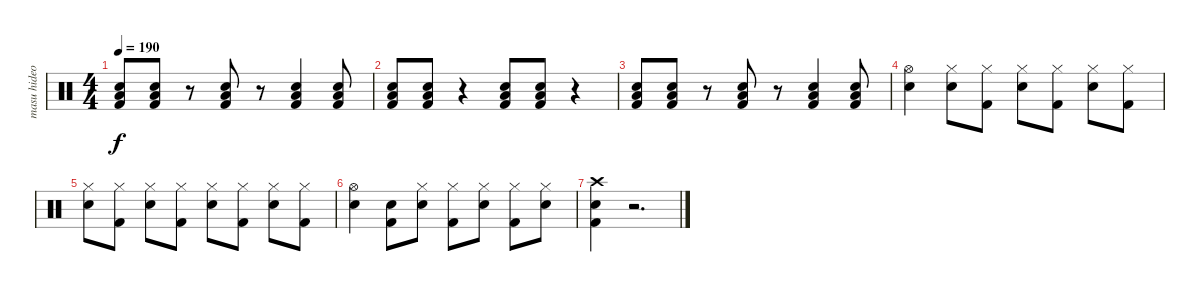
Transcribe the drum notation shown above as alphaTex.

\track ("masu hideo" "masu hideo") {instrument percussion}
\staff {score}
\articulation defaults
\ts (4 4)
\tempo 190
\clef neutral
\ks c
("Snare (hit) 2" "Low Floor Tom (hit)" "Kick (hit) 2").8{dy f} ("Snare (hit) 2" "Low Floor Tom (hit)" "Kick (hit) 2").8 r.8 ("Snare (hit) 2" "Low Floor Tom (hit)" "Kick (hit) 2").8 r.8 ("Snare (hit) 2" "Low Floor Tom (hit)" "Kick (hit) 2").4 ("Snare (hit) 2" "Low Floor Tom (hit)" "Kick (hit) 2").8 |
("Snare (hit) 2" "Low Floor Tom (hit)" "Kick (hit) 2").8 ("Snare (hit) 2" "Low Floor Tom (hit)" "Kick (hit) 2").8 r.4 ("Snare (hit) 2" "Low Floor Tom (hit)" "Kick (hit) 2").8 ("Snare (hit) 2" "Low Floor Tom (hit)" "Kick (hit) 2").8 r.4 |
("Snare (hit) 2" "Low Floor Tom (hit)" "Kick (hit) 2").8 ("Snare (hit) 2" "Low Floor Tom (hit)" "Kick (hit) 2").8 r.8 ("Snare (hit) 2" "Low Floor Tom (hit)" "Kick (hit) 2").8 r.8 ("Snare (hit) 2" "Low Floor Tom (hit)" "Kick (hit) 2").4 ("Snare (hit) 2" "Low Floor Tom (hit)" "Kick (hit) 2").8 |
("Hi-Hat (open)" "Snare (hit) 2").4 ("Hi-Hat (closed)" "Snare (hit) 2").8 ("Hi-Hat (closed)" "Kick (hit) 2").8 ("Hi-Hat (closed)" "Snare (hit) 2").8 ("Hi-Hat (closed)" "Kick (hit) 2").8 ("Hi-Hat (closed)" "Snare (hit) 2").8 ("Hi-Hat (closed)" "Kick (hit) 2").8 |
("Hi-Hat (closed)" "Snare (hit) 2").8 ("Hi-Hat (closed)" "Kick (hit) 2").8 ("Hi-Hat (closed)" "Snare (hit) 2").8 ("Hi-Hat (closed)" "Kick (hit) 2").8 ("Hi-Hat (closed)" "Snare (hit) 2").8 ("Hi-Hat (closed)" "Kick (hit) 2").8 ("Hi-Hat (closed)" "Snare (hit) 2").8 ("Hi-Hat (closed)" "Kick (hit) 2").8 |
("Hi-Hat (open)" "Snare (hit) 2").4 ("Snare (hit) 2" "Kick (hit) 2").8 ("Hi-Hat (closed)" "Snare (hit) 2").8 ("Hi-Hat (closed)" "Kick (hit) 2").8 ("Hi-Hat (closed)" "Snare (hit) 2").8 ("Hi-Hat (closed)" "Kick (hit) 2").8 ("Hi-Hat (closed)" "Snare (hit) 2").8 |
("Crash high (hit)" "Snare (hit) 2" "Kick (hit) 2").4 r.2{d}
